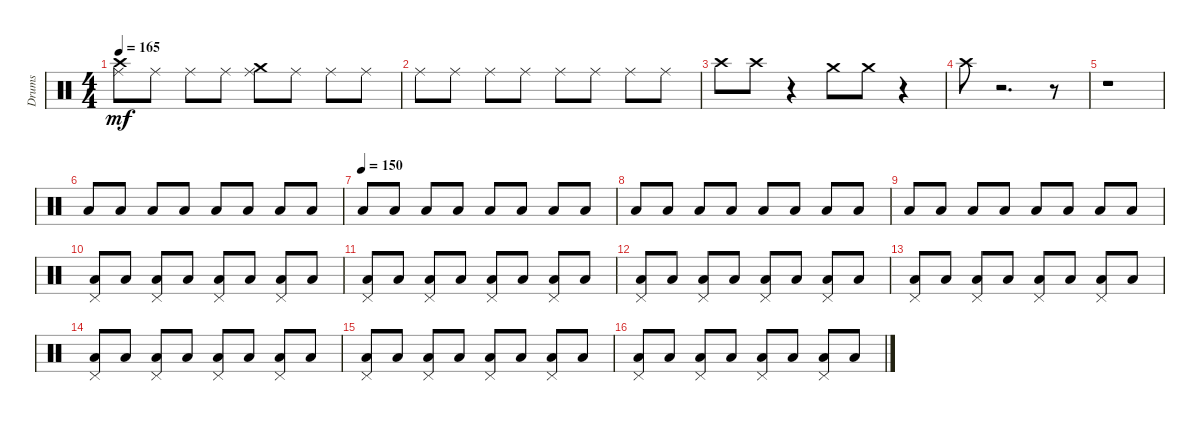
\track ("Drums" "Drums") {instrument percussion}
\staff {score}
\articulation defaults
\ts (4 4)
\tempo 165
\clef neutral
\ks c
("Crash high (hit)" "Ride (middle)").8{dy mf} "Ride (middle)".8 "Ride (middle)".8 "Ride (middle)".8 ("Crash medium (hit)" "Ride (middle)").8 "Ride (middle)".8 "Ride (middle)".8 "Ride (middle)".8 |
"Ride (middle)".8 "Ride (middle)".8 "Ride (middle)".8 "Ride (middle)".8 "Ride (middle)".8 "Ride (middle)".8 "Ride (middle)".8 "Ride (middle)".8 |
"Crash high (hit)".8 "Crash high (hit)".8 r.4 "Crash medium (hit)".8 "Crash medium (hit)".8 r.4 |
"Crash high (hit)".8 r.2{d} r.8 |
r.1 |
"Low Floor Tom (hit)".8 "Low Floor Tom (hit)".8 "Low Floor Tom (hit)".8 "Low Floor Tom (hit)".8 "Low Floor Tom (hit)".8 "Low Floor Tom (hit)".8 "Low Floor Tom (hit)".8 "Low Floor Tom (hit)".8 |
\tempo (150)
"Low Floor Tom (hit)".8 "Low Floor Tom (hit)".8 "Low Floor Tom (hit)".8 "Low Floor Tom (hit)".8 "Low Floor Tom (hit)".8 "Low Floor Tom (hit)".8 "Low Floor Tom (hit)".8 "Low Floor Tom (hit)".8 |
"Low Floor Tom (hit)".8 "Low Floor Tom (hit)".8 "Low Floor Tom (hit)".8 "Low Floor Tom (hit)".8 "Low Floor Tom (hit)".8 "Low Floor Tom (hit)".8 "Low Floor Tom (hit)".8 "Low Floor Tom (hit)".8 |
"Low Floor Tom (hit)".8 "Low Floor Tom (hit)".8 "Low Floor Tom (hit)".8 "Low Floor Tom (hit)".8 "Low Floor Tom (hit)".8 "Low Floor Tom (hit)".8 "Low Floor Tom (hit)".8 "Low Floor Tom (hit)".8 |
("Low Floor Tom (hit)" "Pedal Hi-Hat (hit)").8 "Low Floor Tom (hit)".8 ("Low Floor Tom (hit)" "Pedal Hi-Hat (hit)").8 "Low Floor Tom (hit)".8 ("Low Floor Tom (hit)" "Pedal Hi-Hat (hit)").8 "Low Floor Tom (hit)".8 ("Low Floor Tom (hit)" "Pedal Hi-Hat (hit)").8 "Low Floor Tom (hit)".8 |
("Low Floor Tom (hit)" "Pedal Hi-Hat (hit)").8 "Low Floor Tom (hit)".8 ("Low Floor Tom (hit)" "Pedal Hi-Hat (hit)").8 "Low Floor Tom (hit)".8 ("Low Floor Tom (hit)" "Pedal Hi-Hat (hit)").8 "Low Floor Tom (hit)".8 ("Low Floor Tom (hit)" "Pedal Hi-Hat (hit)").8 "Low Floor Tom (hit)".8 |
("Pedal Hi-Hat (hit)" "Low Floor Tom (hit)").8 "Low Floor Tom (hit)".8 ("Pedal Hi-Hat (hit)" "Low Floor Tom (hit)").8 "Low Floor Tom (hit)".8 ("Pedal Hi-Hat (hit)" "Low Floor Tom (hit)").8 "Low Floor Tom (hit)".8 ("Pedal Hi-Hat (hit)" "Low Floor Tom (hit)").8 "Low Floor Tom (hit)".8 |
("Pedal Hi-Hat (hit)" "Low Floor Tom (hit)").8 "Low Floor Tom (hit)".8 ("Pedal Hi-Hat (hit)" "Low Floor Tom (hit)").8 "Low Floor Tom (hit)".8 ("Pedal Hi-Hat (hit)" "Low Floor Tom (hit)").8 "Low Floor Tom (hit)".8 ("Pedal Hi-Hat (hit)" "Low Floor Tom (hit)").8 "Low Floor Tom (hit)".8 |
("Pedal Hi-Hat (hit)" "Low Floor Tom (hit)").8 "Low Floor Tom (hit)".8 ("Pedal Hi-Hat (hit)" "Low Floor Tom (hit)").8 "Low Floor Tom (hit)".8 ("Pedal Hi-Hat (hit)" "Low Floor Tom (hit)").8 "Low Floor Tom (hit)".8 ("Pedal Hi-Hat (hit)" "Low Floor Tom (hit)").8 "Low Floor Tom (hit)".8 |
("Pedal Hi-Hat (hit)" "Low Floor Tom (hit)").8 "Low Floor Tom (hit)".8 ("Pedal Hi-Hat (hit)" "Low Floor Tom (hit)").8 "Low Floor Tom (hit)".8 ("Pedal Hi-Hat (hit)" "Low Floor Tom (hit)").8 "Low Floor Tom (hit)".8 ("Pedal Hi-Hat (hit)" "Low Floor Tom (hit)").8 "Low Floor Tom (hit)".8 |
("Low Floor Tom (hit)" "Pedal Hi-Hat (hit)").8 "Low Floor Tom (hit)".8 ("Low Floor Tom (hit)" "Pedal Hi-Hat (hit)").8 "Low Floor Tom (hit)".8 ("Low Floor Tom (hit)" "Pedal Hi-Hat (hit)").8 "Low Floor Tom (hit)".8 ("Low Floor Tom (hit)" "Pedal Hi-Hat (hit)").8 "Low Floor Tom (hit)".8
